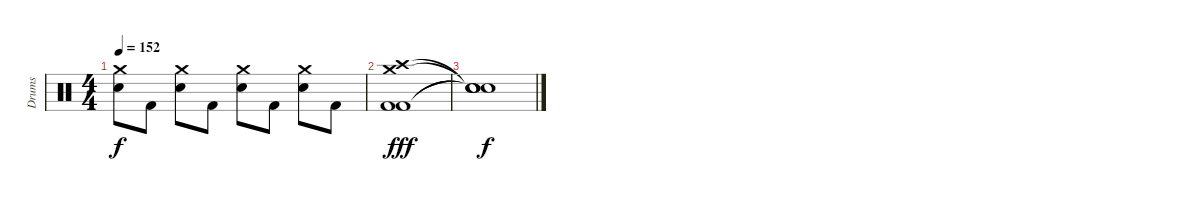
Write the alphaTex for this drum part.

\track ("Drums" "Drums") {instrument percussion}
\staff {score}
\articulation defaults
\ts (4 4)
\tempo 152
\clef neutral
\ks c
("Crash medium (hit)" "Electric Snare (hit)").8{dy f} "Kick (hit) 2".8 ("Crash medium (hit)" "Electric Snare (hit)").8 "Kick (hit) 2".8 ("Crash medium (hit)" "Electric Snare (hit)").8 "Kick (hit) 2".8 ("Crash medium (hit)" "Electric Snare (hit)").8 "Kick (hit) 2".8 |
("Crash medium (hit)" "Crash high (hit)" "Kick (hit) 2" "Kick (hit) 2").1{dy fff} |
("Snare (hit)"{t} "Snare (hit)"{t} "Snare (hit)"{t} "Snare (hit)"{t}).1{dy f}
